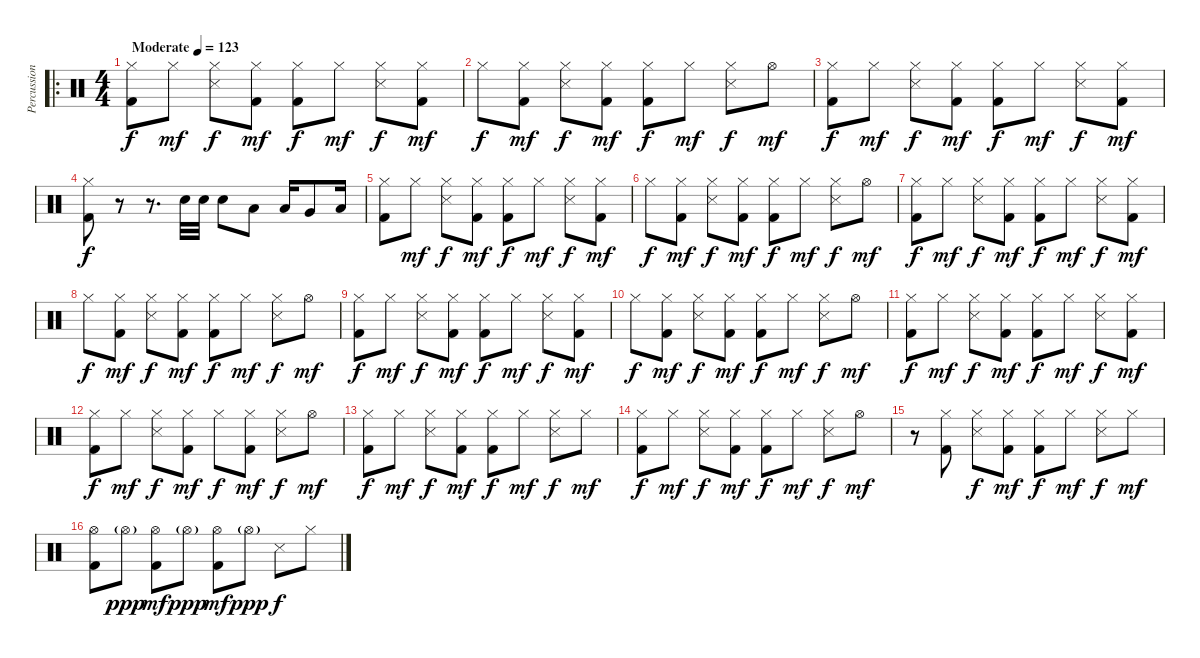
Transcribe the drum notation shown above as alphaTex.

\track ("Percussion" "Percussion") {instrument percussion}
\staff {score}
\articulation defaults
\ro
\ts (4 4)
\tempo (123 "Moderate")
\clef neutral
\ks c
("Hi-Hat (closed)" "Kick (hit) 2").8{dy f} "Hi-Hat (closed)".8{dy mf} ("Hi-Hat (closed)" "Snare (side stick) 3").8{dy f} ("Hi-Hat (closed)" "Kick (hit) 2").8{dy mf} ("Hi-Hat (closed)" "Kick (hit) 2").8{dy f} "Hi-Hat (closed)".8{dy mf} ("Hi-Hat (closed)" "Snare (side stick) 3").8{dy f} ("Hi-Hat (closed)" "Kick (hit) 2").8{dy mf} |
"Hi-Hat (closed)".8{dy f} ("Hi-Hat (closed)" "Kick (hit) 2").8{dy mf} ("Hi-Hat (closed)" "Snare (side stick) 3").8{dy f} ("Hi-Hat (closed)" "Kick (hit) 2").8{dy mf} ("Hi-Hat (closed)" "Kick (hit) 2").8{dy f} "Hi-Hat (closed)".8{dy mf} ("Hi-Hat (closed)" "Snare (side stick) 3").8{dy f} "Hi-Hat (open)".8{dy mf} |
("Hi-Hat (closed)" "Kick (hit) 2").8{dy f} "Hi-Hat (closed)".8{dy mf} ("Hi-Hat (closed)" "Snare (side stick) 3").8{dy f} ("Hi-Hat (closed)" "Kick (hit) 2").8{dy mf} ("Hi-Hat (closed)" "Kick (hit) 2").8{dy f} "Hi-Hat (closed)".8{dy mf} ("Hi-Hat (closed)" "Snare (side stick) 3").8{dy f} ("Hi-Hat (closed)" "Kick (hit) 2").8{dy mf} |
("Hi-Hat (closed)" "Kick (hit) 2").8{dy f} r.8 r.8{d} "Snare (hit) 2".32 "Snare (hit) 2".32 "Snare (hit) 2".8 "Low Tom (hit)".8 "Low Tom (hit)".16 "Very Low Tom (hit)".8 "Low Floor Tom (hit)".16 |
("Hi-Hat (closed)" "Kick (hit) 2").8 "Hi-Hat (closed)".8{dy mf} ("Hi-Hat (closed)" "Snare (side stick) 3").8{dy f} ("Hi-Hat (closed)" "Kick (hit) 2").8{dy mf} ("Hi-Hat (closed)" "Kick (hit) 2").8{dy f} "Hi-Hat (closed)".8{dy mf} ("Hi-Hat (closed)" "Snare (side stick) 3").8{dy f} ("Hi-Hat (closed)" "Kick (hit) 2").8{dy mf} |
"Hi-Hat (closed)".8{dy f} ("Hi-Hat (closed)" "Kick (hit) 2").8{dy mf} ("Hi-Hat (closed)" "Snare (side stick) 3").8{dy f} ("Hi-Hat (closed)" "Kick (hit) 2").8{dy mf} ("Hi-Hat (closed)" "Kick (hit) 2").8{dy f} "Hi-Hat (closed)".8{dy mf} ("Hi-Hat (closed)" "Snare (side stick) 3").8{dy f} "Hi-Hat (open)".8{dy mf} |
("Hi-Hat (closed)" "Kick (hit) 2").8{dy f} "Hi-Hat (closed)".8{dy mf} ("Hi-Hat (closed)" "Snare (side stick) 3").8{dy f} ("Hi-Hat (closed)" "Kick (hit) 2").8{dy mf} ("Hi-Hat (closed)" "Kick (hit) 2").8{dy f} "Hi-Hat (closed)".8{dy mf} ("Hi-Hat (closed)" "Snare (side stick) 3").8{dy f} ("Hi-Hat (closed)" "Kick (hit) 2").8{dy mf} |
"Hi-Hat (closed)".8{dy f} ("Hi-Hat (closed)" "Kick (hit) 2").8{dy mf} ("Hi-Hat (closed)" "Snare (side stick) 3").8{dy f} ("Hi-Hat (closed)" "Kick (hit) 2").8{dy mf} ("Hi-Hat (closed)" "Kick (hit) 2").8{dy f} "Hi-Hat (closed)".8{dy mf} ("Hi-Hat (closed)" "Snare (side stick) 3").8{dy f} "Hi-Hat (open)".8{dy mf} |
("Hi-Hat (closed)" "Kick (hit) 2").8{dy f} "Hi-Hat (closed)".8{dy mf} ("Hi-Hat (closed)" "Snare (side stick) 3").8{dy f} ("Hi-Hat (closed)" "Kick (hit) 2").8{dy mf} ("Hi-Hat (closed)" "Kick (hit) 2").8{dy f} "Hi-Hat (closed)".8{dy mf} ("Hi-Hat (closed)" "Snare (side stick) 3").8{dy f} ("Hi-Hat (closed)" "Kick (hit) 2").8{dy mf} |
"Hi-Hat (closed)".8{dy f} ("Hi-Hat (closed)" "Kick (hit) 2").8{dy mf} ("Hi-Hat (closed)" "Snare (side stick) 3").8{dy f} ("Hi-Hat (closed)" "Kick (hit) 2").8{dy mf} ("Hi-Hat (closed)" "Kick (hit) 2").8{dy f} "Hi-Hat (closed)".8{dy mf} ("Hi-Hat (closed)" "Snare (side stick) 3").8{dy f} "Hi-Hat (open)".8{dy mf} |
("Hi-Hat (closed)" "Kick (hit) 2").8{dy f} "Hi-Hat (closed)".8{dy mf} ("Hi-Hat (closed)" "Snare (side stick) 3").8{dy f} ("Hi-Hat (closed)" "Kick (hit) 2").8{dy mf} ("Hi-Hat (closed)" "Kick (hit) 2").8{dy f} "Hi-Hat (closed)".8{dy mf} ("Hi-Hat (closed)" "Snare (side stick) 3").8{dy f} ("Hi-Hat (closed)" "Kick (hit) 2").8{dy mf} |
("Hi-Hat (closed)" "Kick (hit) 2").8{dy f} "Hi-Hat (closed)".8{dy mf} ("Hi-Hat (closed)" "Snare (side stick) 3").8{dy f} ("Hi-Hat (closed)" "Kick (hit) 2").8{dy mf} "Hi-Hat (closed)".8{dy f} ("Hi-Hat (closed)" "Kick (hit) 2").8{dy mf} ("Hi-Hat (closed)" "Snare (side stick) 3").8{dy f} "Hi-Hat (open)".8{dy mf} |
("Hi-Hat (closed)" "Kick (hit) 2").8{dy f} "Hi-Hat (closed)".8{dy mf} ("Hi-Hat (closed)" "Snare (side stick) 3").8{dy f} ("Hi-Hat (closed)" "Kick (hit) 2").8{dy mf} ("Hi-Hat (closed)" "Kick (hit) 2").8{dy f} "Hi-Hat (closed)".8{dy mf} ("Hi-Hat (closed)" "Snare (side stick) 3").8{dy f} "Hi-Hat (closed)".8{dy mf} |
("Hi-Hat (closed)" "Kick (hit) 2").8{dy f} "Hi-Hat (closed)".8{dy mf} ("Hi-Hat (closed)" "Snare (side stick) 3").8{dy f} ("Hi-Hat (closed)" "Kick (hit) 2").8{dy mf} ("Hi-Hat (closed)" "Kick (hit) 2").8{dy f} "Hi-Hat (closed)".8{dy mf} ("Hi-Hat (closed)" "Snare (side stick) 3").8{dy f} "Hi-Hat (open)".8{dy mf} |
r.8 ("Hi-Hat (closed)" "Kick (hit) 2").8 ("Hi-Hat (closed)" "Snare (side stick) 3").8{dy f} ("Hi-Hat (closed)" "Kick (hit) 2").8{dy mf} ("Hi-Hat (closed)" "Kick (hit) 2").8{dy f} "Hi-Hat (closed)".8{dy mf} ("Hi-Hat (closed)" "Snare (side stick) 3").8{dy f} "Hi-Hat (closed)".8{dy mf} |
("Hi-Hat (open)" "Kick (hit) 2").8 "Hi-Hat (open)"{g}.8{dy ppp} ("Hi-Hat (open)" "Kick (hit) 2").8{dy mf} "Hi-Hat (open)"{g}.8{dy ppp} ("Hi-Hat (open)" "Kick (hit) 2").8{dy mf} "Hi-Hat (open)"{g}.8{dy ppp} "Snare (side stick) 3".8{dy f} "Hi-Hat (closed)".8
